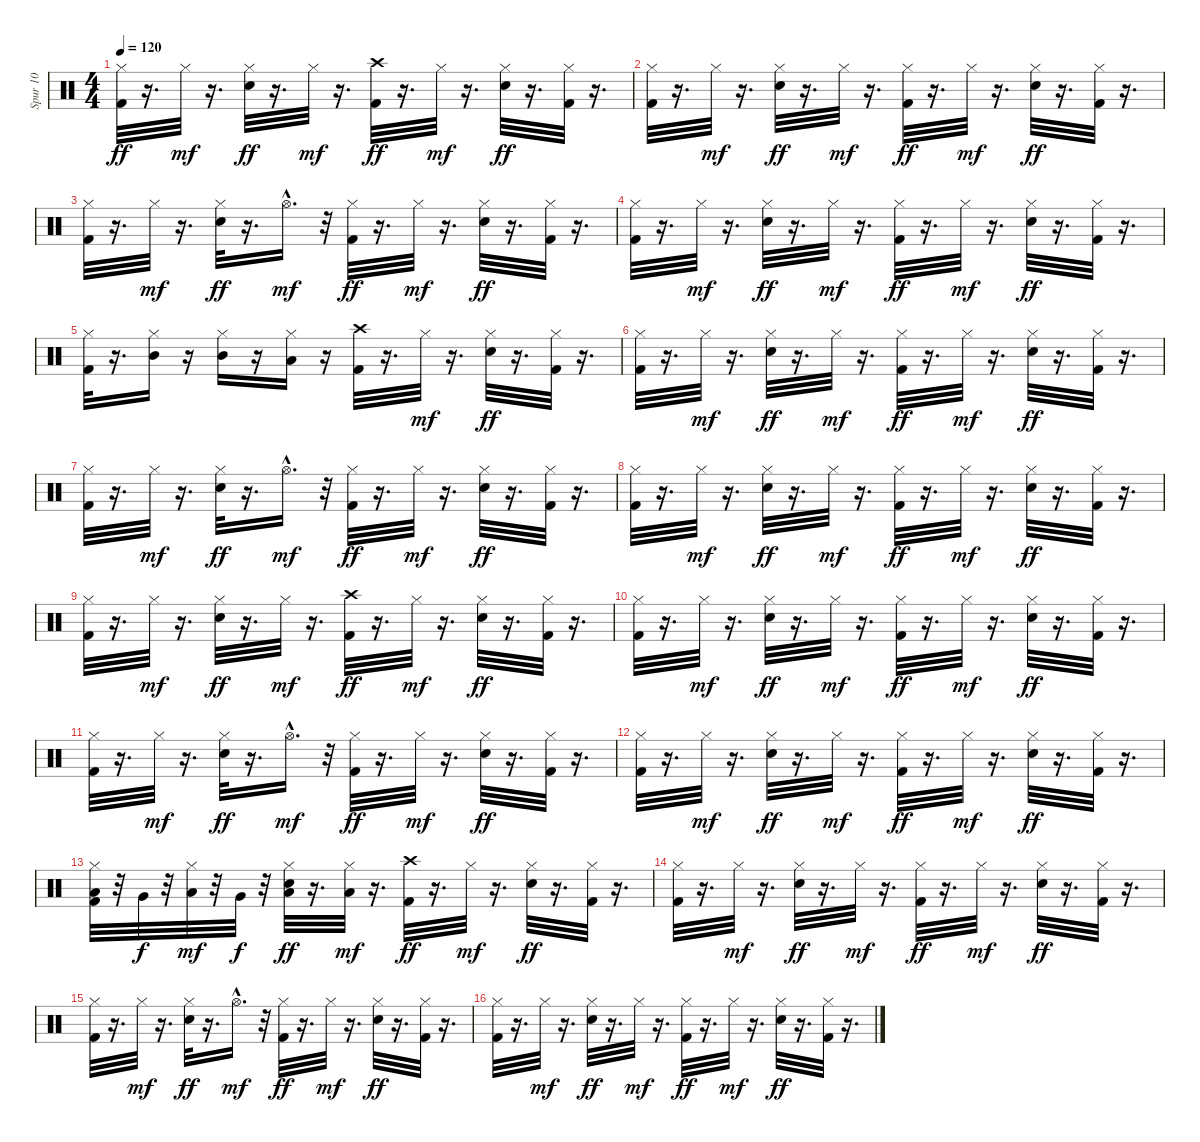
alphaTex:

\track ("Spur 10" "Spur 10") {instrument percussion}
\staff {score}
\articulation defaults
\ts (4 4)
\tempo 120
\clef neutral
\ks c
("Hi-Hat (closed)" "Kick (hit) 2").32{dy ff} r.16{d} "Hi-Hat (closed)".32{dy mf} r.16{d} ("Hi-Hat (closed)" "Snare (hit) 2").32{dy ff} r.16{d} "Hi-Hat (closed)".32{dy mf} r.16{d} ("Crash high (hit)" "Kick (hit) 2").32{dy ff} r.16{d} "Hi-Hat (closed)".32{dy mf} r.16{d} ("Hi-Hat (closed)" "Snare (hit) 2").32{dy ff} r.16{d} ("Hi-Hat (closed)" "Kick (hit) 2").32 r.16{d} |
("Hi-Hat (closed)" "Kick (hit) 2").32 r.16{d} "Hi-Hat (closed)".32{dy mf} r.16{d} ("Hi-Hat (closed)" "Snare (hit) 2").32{dy ff} r.16{d} "Hi-Hat (closed)".32{dy mf} r.16{d} ("Hi-Hat (closed)" "Kick (hit) 2").32{dy ff} r.16{d} "Hi-Hat (closed)".32{dy mf} r.16{d} ("Hi-Hat (closed)" "Snare (hit) 2").32{dy ff} r.16{d} ("Hi-Hat (closed)" "Kick (hit) 2").32 r.16{d} |
("Hi-Hat (closed)" "Kick (hit) 2").32 r.16{d} "Hi-Hat (closed)".32{dy mf} r.16{d} ("Hi-Hat (closed)" "Snare (hit) 2").32{dy ff} r.16{d} "Hi-Hat (open)"{hac}.16{d dy mf} r.32 ("Hi-Hat (closed)" "Kick (hit) 2").32{dy ff} r.16{d} "Hi-Hat (closed)".32{dy mf} r.16{d} ("Hi-Hat (closed)" "Snare (hit) 2").32{dy ff} r.16{d} ("Hi-Hat (closed)" "Kick (hit) 2").32 r.16{d} |
("Hi-Hat (closed)" "Kick (hit) 2").32 r.16{d} "Hi-Hat (closed)".32{dy mf} r.16{d} ("Hi-Hat (closed)" "Snare (hit) 2").32{dy ff} r.16{d} "Hi-Hat (closed)".32{dy mf} r.16{d} ("Hi-Hat (closed)" "Kick (hit) 2").32{dy ff} r.16{d} "Hi-Hat (closed)".32{dy mf} r.16{d} ("Hi-Hat (closed)" "Snare (hit) 2").32{dy ff} r.16{d} ("Hi-Hat (closed)" "Kick (hit) 2").32 r.16{d} |
("Hi-Hat (closed)" "Kick (hit) 2").32 r.16{d} ("Hi-Hat (closed)" "Mid Tom (hit)").16 r.16 ("Hi-Hat (closed)" "Mid Tom (hit)").16 r.16 ("Hi-Hat (closed)" "Low Tom (hit)").16 r.16 ("Crash high (hit)" "Kick (hit) 2").32 r.16{d} "Hi-Hat (closed)".32{dy mf} r.16{d} ("Hi-Hat (closed)" "Snare (hit) 2").32{dy ff} r.16{d} ("Hi-Hat (closed)" "Kick (hit) 2").32 r.16{d} |
("Hi-Hat (closed)" "Kick (hit) 2").32 r.16{d} "Hi-Hat (closed)".32{dy mf} r.16{d} ("Hi-Hat (closed)" "Snare (hit) 2").32{dy ff} r.16{d} "Hi-Hat (closed)".32{dy mf} r.16{d} ("Hi-Hat (closed)" "Kick (hit) 2").32{dy ff} r.16{d} "Hi-Hat (closed)".32{dy mf} r.16{d} ("Hi-Hat (closed)" "Snare (hit) 2").32{dy ff} r.16{d} ("Hi-Hat (closed)" "Kick (hit) 2").32 r.16{d} |
("Hi-Hat (closed)" "Kick (hit) 2").32 r.16{d} "Hi-Hat (closed)".32{dy mf} r.16{d} ("Hi-Hat (closed)" "Snare (hit) 2").32{dy ff} r.16{d} "Hi-Hat (open)"{hac}.16{d dy mf} r.32 ("Hi-Hat (closed)" "Kick (hit) 2").32{dy ff} r.16{d} "Hi-Hat (closed)".32{dy mf} r.16{d} ("Hi-Hat (closed)" "Snare (hit) 2").32{dy ff} r.16{d} ("Hi-Hat (closed)" "Kick (hit) 2").32 r.16{d} |
("Hi-Hat (closed)" "Kick (hit) 2").32 r.16{d} "Hi-Hat (closed)".32{dy mf} r.16{d} ("Hi-Hat (closed)" "Snare (hit) 2").32{dy ff} r.16{d} "Hi-Hat (closed)".32{dy mf} r.16{d} ("Hi-Hat (closed)" "Kick (hit) 2").32{dy ff} r.16{d} "Hi-Hat (closed)".32{dy mf} r.16{d} ("Hi-Hat (closed)" "Snare (hit) 2").32{dy ff} r.16{d} ("Hi-Hat (closed)" "Kick (hit) 2").32 r.16{d} |
("Hi-Hat (closed)" "Kick (hit) 2").32 r.16{d} "Hi-Hat (closed)".32{dy mf} r.16{d} ("Hi-Hat (closed)" "Snare (hit) 2").32{dy ff} r.16{d} "Hi-Hat (closed)".32{dy mf} r.16{d} ("Crash high (hit)" "Kick (hit) 2").32{dy ff} r.16{d} "Hi-Hat (closed)".32{dy mf} r.16{d} ("Hi-Hat (closed)" "Snare (hit) 2").32{dy ff} r.16{d} ("Hi-Hat (closed)" "Kick (hit) 2").32 r.16{d} |
("Hi-Hat (closed)" "Kick (hit) 2").32 r.16{d} "Hi-Hat (closed)".32{dy mf} r.16{d} ("Hi-Hat (closed)" "Snare (hit) 2").32{dy ff} r.16{d} "Hi-Hat (closed)".32{dy mf} r.16{d} ("Hi-Hat (closed)" "Kick (hit) 2").32{dy ff} r.16{d} "Hi-Hat (closed)".32{dy mf} r.16{d} ("Hi-Hat (closed)" "Snare (hit) 2").32{dy ff} r.16{d} ("Hi-Hat (closed)" "Kick (hit) 2").32 r.16{d} |
("Hi-Hat (closed)" "Kick (hit) 2").32 r.16{d} "Hi-Hat (closed)".32{dy mf} r.16{d} ("Hi-Hat (closed)" "Snare (hit) 2").32{dy ff} r.16{d} "Hi-Hat (open)"{hac}.16{d dy mf} r.32 ("Hi-Hat (closed)" "Kick (hit) 2").32{dy ff} r.16{d} "Hi-Hat (closed)".32{dy mf} r.16{d} ("Hi-Hat (closed)" "Snare (hit) 2").32{dy ff} r.16{d} ("Hi-Hat (closed)" "Kick (hit) 2").32 r.16{d} |
("Hi-Hat (closed)" "Kick (hit) 2").32 r.16{d} "Hi-Hat (closed)".32{dy mf} r.16{d} ("Hi-Hat (closed)" "Snare (hit) 2").32{dy ff} r.16{d} "Hi-Hat (closed)".32{dy mf} r.16{d} ("Hi-Hat (closed)" "Kick (hit) 2").32{dy ff} r.16{d} "Hi-Hat (closed)".32{dy mf} r.16{d} ("Hi-Hat (closed)" "Snare (hit) 2").32{dy ff} r.16{d} ("Hi-Hat (closed)" "Kick (hit) 2").32 r.16{d} |
("Hi-Hat (closed)" "Kick (hit) 2" "Low Tom (hit)").32 r.32 "Very Low Tom (hit)".32{dy f} r.32 ("Hi-Hat (closed)" "Low Tom (hit)").32{dy mf} r.32 "Very Low Tom (hit)".32{dy f} r.32 ("Hi-Hat (closed)" "Low Tom (hit)" "Snare (hit) 2").32{dy ff} r.16{d} ("Hi-Hat (closed)" "Low Tom (hit)").32{dy mf} r.16{d} ("Crash high (hit)" "Kick (hit) 2").32{dy ff} r.16{d} "Hi-Hat (closed)".32{dy mf} r.16{d} ("Hi-Hat (closed)" "Snare (hit) 2").32{dy ff} r.16{d} ("Hi-Hat (closed)" "Kick (hit) 2").32 r.16{d} |
("Hi-Hat (closed)" "Kick (hit) 2").32 r.16{d} "Hi-Hat (closed)".32{dy mf} r.16{d} ("Hi-Hat (closed)" "Snare (hit) 2").32{dy ff} r.16{d} "Hi-Hat (closed)".32{dy mf} r.16{d} ("Hi-Hat (closed)" "Kick (hit) 2").32{dy ff} r.16{d} "Hi-Hat (closed)".32{dy mf} r.16{d} ("Hi-Hat (closed)" "Snare (hit) 2").32{dy ff} r.16{d} ("Hi-Hat (closed)" "Kick (hit) 2").32 r.16{d} |
("Hi-Hat (closed)" "Kick (hit) 2").32 r.16{d} "Hi-Hat (closed)".32{dy mf} r.16{d} ("Hi-Hat (closed)" "Snare (hit) 2").32{dy ff} r.16{d} "Hi-Hat (open)"{hac}.16{d dy mf} r.32 ("Hi-Hat (closed)" "Kick (hit) 2").32{dy ff} r.16{d} "Hi-Hat (closed)".32{dy mf} r.16{d} ("Hi-Hat (closed)" "Snare (hit) 2").32{dy ff} r.16{d} ("Hi-Hat (closed)" "Kick (hit) 2").32 r.16{d} |
("Hi-Hat (closed)" "Kick (hit) 2").32 r.16{d} "Hi-Hat (closed)".32{dy mf} r.16{d} ("Hi-Hat (closed)" "Snare (hit) 2").32{dy ff} r.16{d} "Hi-Hat (closed)".32{dy mf} r.16{d} ("Hi-Hat (closed)" "Kick (hit) 2").32{dy ff} r.16{d} "Hi-Hat (closed)".32{dy mf} r.16{d} ("Hi-Hat (closed)" "Snare (hit) 2").32{dy ff} r.16{d} ("Hi-Hat (closed)" "Kick (hit) 2").32 r.16{d}
